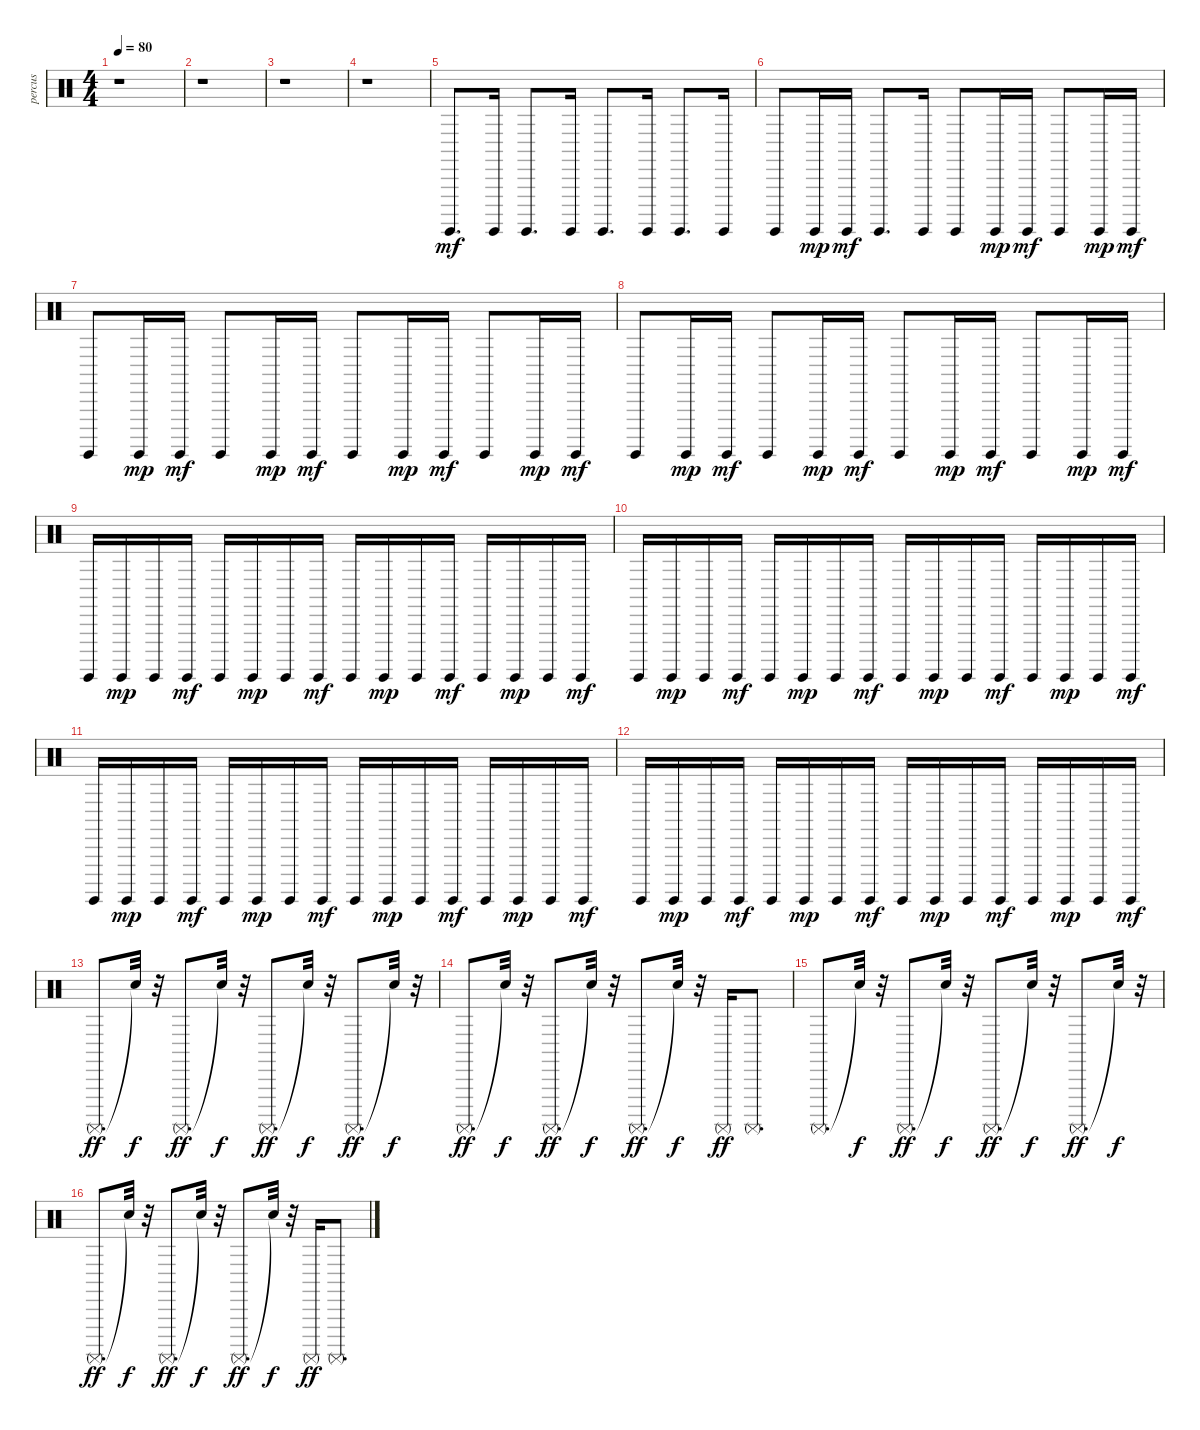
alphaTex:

\track ("percus" "percus") {instrument percussion}
\staff {score}
\articulation defaults
\ts (4 4)
\tempo 80
\clef neutral
\ks c
r.1{dy f} |
r.1 |
r.1 |
r.1 |
"Surdo (hit)".8{d dy mf volume 3} "Surdo (hit)".16{volume 5} "Surdo (hit)".8{d volume 6} "Surdo (hit)".16{volume 9} "Surdo (hit)".8{d volume 9} "Surdo (hit)".16{volume 12} "Surdo (hit)".8{d volume 13} "Surdo (hit)".16{volume 15} |
"Surdo (hit)".8{volume 16} "Surdo (hit)".16{dy mp} "Surdo (hit)".16{dy mf} "Surdo (hit)".8{d} "Surdo (hit)".16 "Surdo (hit)".8 "Surdo (hit)".16{dy mp} "Surdo (hit)".16{dy mf} "Surdo (hit)".8 "Surdo (hit)".16{dy mp} "Surdo (hit)".16{dy mf} |
"Surdo (hit)".8 "Surdo (hit)".16{dy mp} "Surdo (hit)".16{dy mf} "Surdo (hit)".8 "Surdo (hit)".16{dy mp} "Surdo (hit)".16{dy mf} "Surdo (hit)".8 "Surdo (hit)".16{dy mp} "Surdo (hit)".16{dy mf} "Surdo (hit)".8 "Surdo (hit)".16{dy mp} "Surdo (hit)".16{dy mf} |
"Surdo (hit)".8 "Surdo (hit)".16{dy mp} "Surdo (hit)".16{dy mf} "Surdo (hit)".8 "Surdo (hit)".16{dy mp} "Surdo (hit)".16{dy mf} "Surdo (hit)".8 "Surdo (hit)".16{dy mp} "Surdo (hit)".16{dy mf} "Surdo (hit)".8 "Surdo (hit)".16{dy mp} "Surdo (hit)".16{dy mf} |
"Surdo (hit)".16 "Surdo (hit)".16{dy mp} "Surdo (hit)".16 "Surdo (hit)".16{dy mf} "Surdo (hit)".16 "Surdo (hit)".16{dy mp} "Surdo (hit)".16 "Surdo (hit)".16{dy mf} "Surdo (hit)".16 "Surdo (hit)".16{dy mp} "Surdo (hit)".16 "Surdo (hit)".16{dy mf} "Surdo (hit)".16 "Surdo (hit)".16{dy mp} "Surdo (hit)".16 "Surdo (hit)".16{dy mf} |
"Surdo (hit)".16 "Surdo (hit)".16{dy mp} "Surdo (hit)".16 "Surdo (hit)".16{dy mf} "Surdo (hit)".16 "Surdo (hit)".16{dy mp} "Surdo (hit)".16 "Surdo (hit)".16{dy mf} "Surdo (hit)".16 "Surdo (hit)".16{dy mp} "Surdo (hit)".16 "Surdo (hit)".16{dy mf} "Surdo (hit)".16 "Surdo (hit)".16{dy mp} "Surdo (hit)".16 "Surdo (hit)".16{dy mf} |
"Surdo (hit)".16 "Surdo (hit)".16{dy mp} "Surdo (hit)".16 "Surdo (hit)".16{dy mf} "Surdo (hit)".16 "Surdo (hit)".16{dy mp} "Surdo (hit)".16 "Surdo (hit)".16{dy mf} "Surdo (hit)".16 "Surdo (hit)".16{dy mp} "Surdo (hit)".16 "Surdo (hit)".16{dy mf} "Surdo (hit)".16 "Surdo (hit)".16{dy mp} "Surdo (hit)".16 "Surdo (hit)".16{dy mf} |
"Surdo (hit)".16 "Surdo (hit)".16{dy mp} "Surdo (hit)".16 "Surdo (hit)".16{dy mf} "Surdo (hit)".16 "Surdo (hit)".16{dy mp} "Surdo (hit)".16 "Surdo (hit)".16{dy mf} "Surdo (hit)".16 "Surdo (hit)".16{dy mp} "Surdo (hit)".16 "Surdo (hit)".16{dy mf} "Surdo (hit)".16 "Surdo (hit)".16{dy mp} "Surdo (hit)".16 "Surdo (hit)".16{dy mf} |
"Surdo (mute)".8{d dy ff} "Snare (hit)"{t}.32{dy f} r.32 "Surdo (mute)".8{d dy ff} "Snare (hit)"{t}.32{dy f} r.32 "Surdo (mute)".8{d dy ff} "Snare (hit)"{t}.32{dy f} r.32 "Surdo (mute)".8{d dy ff} "Snare (hit)"{t}.32{dy f} r.32 |
"Surdo (mute)".8{d dy ff} "Snare (hit)"{t}.32{dy f} r.32 "Surdo (mute)".8{d dy ff} "Snare (hit)"{t}.32{dy f} r.32 "Surdo (mute)".8{d dy ff} "Snare (hit)"{t}.32{dy f} r.32 "Surdo (mute)".16{dy ff} "Surdo (mute)".8{d} |
"Surdo (mute)".8{d} "Snare (hit)"{t}.32{dy f} r.32 "Surdo (mute)".8{d dy ff} "Snare (hit)"{t}.32{dy f} r.32 "Surdo (mute)".8{d dy ff} "Snare (hit)"{t}.32{dy f} r.32 "Surdo (mute)".8{d dy ff} "Snare (hit)"{t}.32{dy f} r.32 |
"Surdo (mute)".8{d dy ff} "Snare (hit)"{t}.32{dy f} r.32 "Surdo (mute)".8{d dy ff} "Snare (hit)"{t}.32{dy f} r.32 "Surdo (mute)".8{d dy ff} "Snare (hit)"{t}.32{dy f} r.32 "Surdo (mute)".16{dy ff} "Surdo (mute)".8{d}
